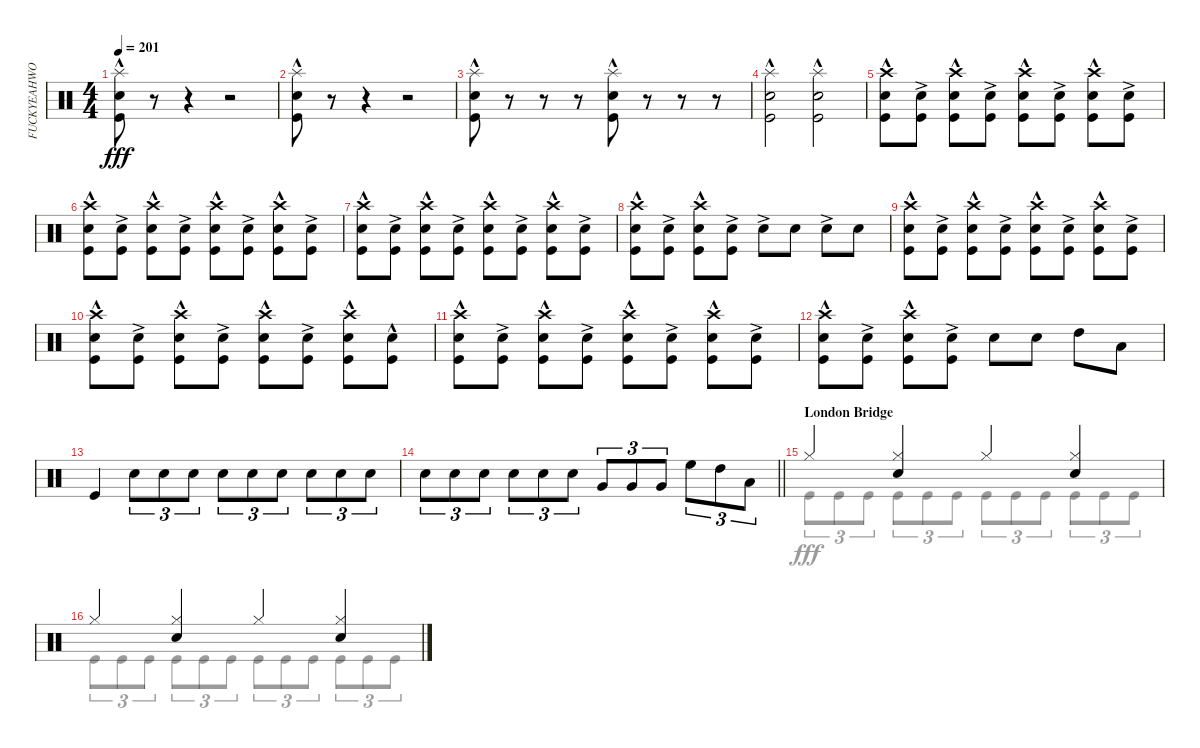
\track ("FUCKYEAHWOOTDAVEMACKINTOSH(Percussion)" "FUCKYEAHWO") {instrument percussion}
\staff {score}
\articulation defaults
\voice
\ts (4 4)
\tempo 201
\clef neutral
\ks c
("Snare (hit) 2" "Kick (hit)"{hac} "Splash (hit)").8{dy fff} r.8 r.4 r.2 |
("Snare (hit) 2" "Kick (hit)"{hac} "Splash (hit)").8 r.8 r.4 r.2 |
("Snare (hit) 2" "Kick (hit)"{hac} "Splash (hit)").8 r.8 r.8 r.8 ("Snare (hit) 2" "Kick (hit)"{hac} "Splash (hit)").8 r.8 r.8 r.8 |
("Snare (hit) 2" "Kick (hit)"{hac} "Splash (hit)").2 ("Snare (hit) 2" "Kick (hit)"{hac} "Splash (hit)").2 |
("Snare (hit) 2" "Kick (hit)"{hac} "Crash high (hit)").8 ("Snare (hit) 2" "Kick (hit)"{ac}).8 ("Snare (hit) 2" "Kick (hit)"{hac} "Crash high (hit)").8 ("Snare (hit) 2" "Kick (hit)"{ac}).8 ("Snare (hit) 2" "Kick (hit)"{hac} "Crash high (hit)").8 ("Snare (hit) 2" "Kick (hit)"{ac}).8 ("Snare (hit) 2" "Kick (hit)"{hac} "Crash high (hit)").8 ("Snare (hit) 2" "Kick (hit)"{ac}).8 |
("Snare (hit) 2" "Kick (hit)"{hac} "Crash high (hit)").8 ("Snare (hit) 2" "Kick (hit)"{ac}).8 ("Snare (hit) 2" "Kick (hit)"{hac} "Crash high (hit)").8 ("Snare (hit) 2" "Kick (hit)"{ac}).8 ("Snare (hit) 2" "Kick (hit)"{hac} "Crash high (hit)").8 ("Snare (hit) 2" "Kick (hit)"{ac}).8 ("Snare (hit) 2" "Kick (hit)"{hac} "Crash high (hit)").8 ("Snare (hit) 2" "Kick (hit)"{ac}).8 |
("Snare (hit) 2" "Kick (hit)"{hac} "Crash high (hit)").8 ("Snare (hit) 2" "Kick (hit)"{ac}).8 ("Snare (hit) 2" "Kick (hit)"{hac} "Crash high (hit)").8 ("Snare (hit) 2" "Kick (hit)"{ac}).8 ("Snare (hit) 2" "Kick (hit)"{hac} "Crash high (hit)").8 ("Snare (hit) 2" "Kick (hit)"{ac}).8 ("Snare (hit) 2" "Kick (hit)"{hac} "Crash high (hit)").8 ("Snare (hit) 2" "Kick (hit)"{ac}).8 |
("Snare (hit) 2" "Kick (hit)"{hac} "Crash high (hit)").8 ("Snare (hit) 2" "Kick (hit)"{ac}).8 ("Snare (hit) 2" "Kick (hit)"{hac} "Crash high (hit)").8 ("Snare (hit) 2" "Kick (hit)"{ac}).8 "Snare (hit) 2"{ac}.8 "Snare (hit) 2".8 "Snare (hit) 2"{ac}.8 "Snare (hit) 2".8 |
("Snare (hit) 2"{hac} "Kick (hit)" "Crash high (hit)").8 ("Snare (hit) 2"{ac} "Kick (hit)").8 ("Snare (hit) 2"{hac} "Kick (hit)" "Crash high (hit)").8 ("Snare (hit) 2"{ac} "Kick (hit)").8 ("Snare (hit) 2"{hac} "Kick (hit)" "Crash high (hit)").8 ("Snare (hit) 2"{ac} "Kick (hit)").8 ("Snare (hit) 2"{hac} "Kick (hit)" "Crash high (hit)").8 ("Snare (hit) 2"{ac} "Kick (hit)").8 |
("Snare (hit) 2"{hac} "Kick (hit)" "Crash high (hit)").8 ("Snare (hit) 2"{ac} "Kick (hit)").8 ("Snare (hit) 2"{hac} "Kick (hit)" "Crash high (hit)").8 ("Snare (hit) 2"{ac} "Kick (hit)").8 ("Snare (hit) 2"{hac} "Kick (hit)" "Crash high (hit)").8 ("Snare (hit) 2"{ac} "Kick (hit)").8 ("Snare (hit) 2"{hac} "Kick (hit)" "Crash high (hit)").8 ("Snare (hit) 2"{hac} "Kick (hit)").8 |
("Snare (hit) 2"{hac} "Kick (hit)" "Crash high (hit)").8 ("Snare (hit) 2"{ac} "Kick (hit)").8 ("Snare (hit) 2"{hac} "Kick (hit)" "Crash high (hit)").8 ("Snare (hit) 2"{ac} "Kick (hit)").8 ("Snare (hit) 2"{hac} "Kick (hit)" "Crash high (hit)").8 ("Snare (hit) 2"{ac} "Kick (hit)").8 ("Snare (hit) 2"{hac} "Kick (hit)" "Crash high (hit)").8 ("Snare (hit) 2"{ac} "Kick (hit)").8 |
("Snare (hit) 2"{hac} "Kick (hit)" "Crash high (hit)").8 ("Snare (hit) 2"{ac} "Kick (hit)").8 ("Snare (hit) 2"{hac} "Kick (hit)" "Crash high (hit)").8 ("Snare (hit) 2"{ac} "Kick (hit)").8 "Snare (hit) 2".8 "Snare (hit) 2".8 "High Tom (hit)".8 "Low Tom (hit)".8 |
"Kick (hit)".4 "Snare (hit) 2".8{tu (3 2)} "Snare (hit) 2".8{tu (3 2)} "Snare (hit) 2".8{tu (3 2)} "Snare (hit) 2".8{tu (3 2)} "Snare (hit) 2".8{tu (3 2)} "Snare (hit) 2".8{tu (3 2)} "Snare (hit) 2".8{tu (3 2)} "Snare (hit) 2".8{tu (3 2)} "Snare (hit) 2".8{tu (3 2)} |
\barLineRight lightlight "Snare (hit) 2".8{tu (3 2)} "Snare (hit) 2".8{tu (3 2)} "Snare (hit) 2".8{tu (3 2)} "Snare (hit) 2".8{tu (3 2)} "Snare (hit) 2".8{tu (3 2)} "Snare (hit) 2".8{tu (3 2)} "Very Low Tom (hit)".8{tu (3 2)} "Very Low Tom (hit)".8{tu (3 2)} "Very Low Tom (hit)".8{tu (3 2)} "High Floor Tom (hit)".8{tu (3 2)} "High Tom (hit)".8{tu (3 2)} "Low Tom (hit)".8{tu (3 2)}
|
\section ("" "London Bridge")
"Hi-Hat (closed)".4 ("Hi-Hat (closed)" "Snare (hit) 2").4 "Hi-Hat (closed)".4 ("Hi-Hat (closed)" "Snare (hit) 2").4 |
"Hi-Hat (closed)".4 ("Hi-Hat (closed)" "Snare (hit) 2").4 "Hi-Hat (closed)".4 ("Hi-Hat (closed)" "Snare (hit) 2").4
\voice
\clef neutral
\ottava regular
\simile none
\ks c
|
|
|
|
|
|
|
|
|
|
|
|
|
\barLineRight lightlight
|
"Kick (hit)".8{tu (3 2)} "Kick (hit)".8{tu (3 2)} "Kick (hit)".8{tu (3 2)} "Kick (hit)".8{tu (3 2)} "Kick (hit)".8{tu (3 2)} "Kick (hit)".8{tu (3 2)} "Kick (hit)".8{tu (3 2)} "Kick (hit)".8{tu (3 2)} "Kick (hit)".8{tu (3 2)} "Kick (hit)".8{tu (3 2)} "Kick (hit)".8{tu (3 2)} "Kick (hit)".8{tu (3 2)} |
"Kick (hit)".8{tu (3 2)} "Kick (hit)".8{tu (3 2)} "Kick (hit)".8{tu (3 2)} "Kick (hit)".8{tu (3 2)} "Kick (hit)".8{tu (3 2)} "Kick (hit)".8{tu (3 2)} "Kick (hit)".8{tu (3 2)} "Kick (hit)".8{tu (3 2)} "Kick (hit)".8{tu (3 2)} "Kick (hit)".8{tu (3 2)} "Kick (hit)".8{tu (3 2)} "Kick (hit)".8{tu (3 2)}
